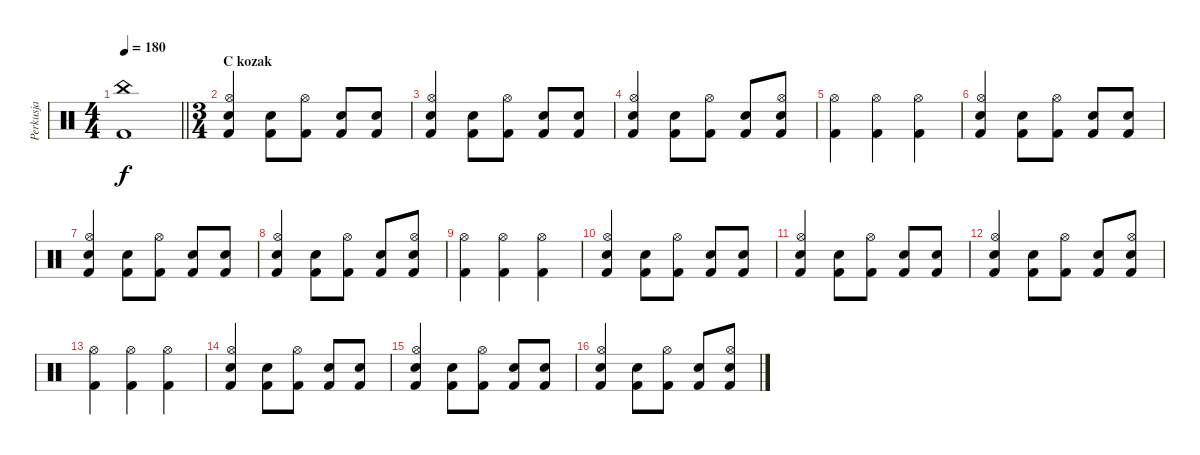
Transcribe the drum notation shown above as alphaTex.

\track ("Perkusja" "Perkusja") {instrument percussion}
\staff {score}
\articulation defaults
\ts (4 4)
\tempo 180
\clef neutral
\barLineRight lightlight
\ks c
("China (hit)" "Kick (hit) 2").1{dy f} |
\ts (3 4)
\section ("" "C kozak")
("Hi-Hat (open)" "Snare (hit) 2" "Kick (hit) 2").4 ("Snare (hit) 2" "Kick (hit) 2").8 ("Hi-Hat (open)" "Kick (hit) 2").8 ("Snare (hit) 2" "Kick (hit) 2").8 ("Snare (hit) 2" "Kick (hit) 2").8 |
("Hi-Hat (open)" "Snare (hit) 2" "Kick (hit) 2").4 ("Snare (hit) 2" "Kick (hit) 2").8 ("Hi-Hat (open)" "Kick (hit) 2").8 ("Snare (hit) 2" "Kick (hit) 2").8 ("Snare (hit) 2" "Kick (hit) 2").8 |
("Hi-Hat (open)" "Snare (hit) 2" "Kick (hit) 2").4 ("Snare (hit) 2" "Kick (hit) 2").8 ("Hi-Hat (open)" "Kick (hit) 2").8 ("Snare (hit) 2" "Kick (hit) 2").8 ("Hi-Hat (open)" "Snare (hit) 2" "Kick (hit) 2").8 |
("Hi-Hat (open)" "Kick (hit) 2").4 ("Hi-Hat (open)" "Kick (hit) 2").4 ("Hi-Hat (open)" "Kick (hit) 2").4 |
("Hi-Hat (open)" "Snare (hit) 2" "Kick (hit) 2").4 ("Snare (hit) 2" "Kick (hit) 2").8 ("Hi-Hat (open)" "Kick (hit) 2").8 ("Snare (hit) 2" "Kick (hit) 2").8 ("Snare (hit) 2" "Kick (hit) 2").8 |
("Hi-Hat (open)" "Snare (hit) 2" "Kick (hit) 2").4 ("Snare (hit) 2" "Kick (hit) 2").8 ("Hi-Hat (open)" "Kick (hit) 2").8 ("Snare (hit) 2" "Kick (hit) 2").8 ("Snare (hit) 2" "Kick (hit) 2").8 |
("Hi-Hat (open)" "Snare (hit) 2" "Kick (hit) 2").4 ("Snare (hit) 2" "Kick (hit) 2").8 ("Hi-Hat (open)" "Kick (hit) 2").8 ("Snare (hit) 2" "Kick (hit) 2").8 ("Hi-Hat (open)" "Snare (hit) 2" "Kick (hit) 2").8 |
("Hi-Hat (open)" "Kick (hit) 2").4 ("Hi-Hat (open)" "Kick (hit) 2").4 ("Hi-Hat (open)" "Kick (hit) 2").4 |
("Hi-Hat (open)" "Snare (hit) 2" "Kick (hit) 2").4 ("Snare (hit) 2" "Kick (hit) 2").8 ("Hi-Hat (open)" "Kick (hit) 2").8 ("Snare (hit) 2" "Kick (hit) 2").8 ("Snare (hit) 2" "Kick (hit) 2").8 |
("Hi-Hat (open)" "Snare (hit) 2" "Kick (hit) 2").4 ("Snare (hit) 2" "Kick (hit) 2").8 ("Hi-Hat (open)" "Kick (hit) 2").8 ("Snare (hit) 2" "Kick (hit) 2").8 ("Snare (hit) 2" "Kick (hit) 2").8 |
("Hi-Hat (open)" "Snare (hit) 2" "Kick (hit) 2").4 ("Snare (hit) 2" "Kick (hit) 2").8 ("Hi-Hat (open)" "Kick (hit) 2").8 ("Snare (hit) 2" "Kick (hit) 2").8 ("Hi-Hat (open)" "Snare (hit) 2" "Kick (hit) 2").8 |
("Hi-Hat (open)" "Kick (hit) 2").4 ("Hi-Hat (open)" "Kick (hit) 2").4 ("Hi-Hat (open)" "Kick (hit) 2").4 |
("Hi-Hat (open)" "Snare (hit) 2" "Kick (hit) 2").4 ("Snare (hit) 2" "Kick (hit) 2").8 ("Hi-Hat (open)" "Kick (hit) 2").8 ("Snare (hit) 2" "Kick (hit) 2").8 ("Snare (hit) 2" "Kick (hit) 2").8 |
("Hi-Hat (open)" "Snare (hit) 2" "Kick (hit) 2").4 ("Snare (hit) 2" "Kick (hit) 2").8 ("Hi-Hat (open)" "Kick (hit) 2").8 ("Snare (hit) 2" "Kick (hit) 2").8 ("Snare (hit) 2" "Kick (hit) 2").8 |
("Hi-Hat (open)" "Snare (hit) 2" "Kick (hit) 2").4 ("Snare (hit) 2" "Kick (hit) 2").8 ("Hi-Hat (open)" "Kick (hit) 2").8 ("Snare (hit) 2" "Kick (hit) 2").8 ("Hi-Hat (open)" "Snare (hit) 2" "Kick (hit) 2").8
